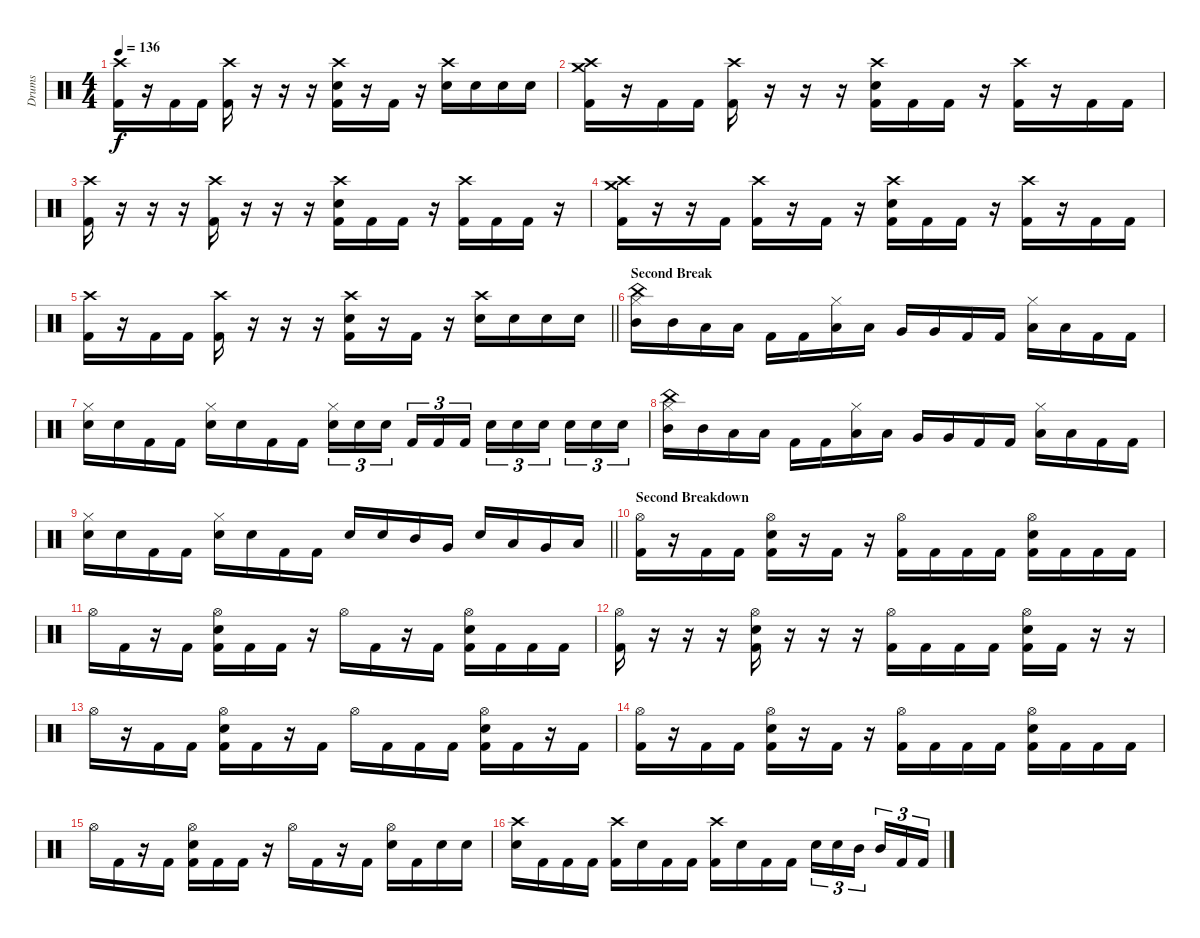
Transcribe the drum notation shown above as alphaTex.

\track ("Drums" "Drums") {instrument percussion}
\staff {score}
\articulation defaults
\ts (4 4)
\tempo 136
\clef neutral
\ks c
("Crash high (hit)" "Kick (hit) 2").16{dy f} r.16 "Kick (hit) 2".16 "Kick (hit) 2".16 ("Crash high (hit)" "Kick (hit) 2").16 r.16 r.16 r.16 ("Crash high (hit)" "Electric Snare (hit)" "Kick (hit) 2").16 r.16 "Kick (hit) 2".16 r.16 ("Crash high (hit)" "Electric Snare (hit)").16 "Electric Snare (hit)".16 "Electric Snare (hit)".16 "Electric Snare (hit)".16 |
("Crash medium (hit)" "Crash high (hit)" "Kick (hit) 2").16 r.16 "Kick (hit) 2".16 "Kick (hit) 2".16 ("Crash high (hit)" "Kick (hit) 2").16 r.16 r.16 r.16 ("Crash high (hit)" "Electric Snare (hit)" "Kick (hit) 2").16 "Kick (hit) 2".16 "Kick (hit) 2".16 r.16 ("Crash high (hit)" "Kick (hit) 2").16 r.16 "Kick (hit) 2".16 "Kick (hit) 2".16 |
("Crash high (hit)" "Kick (hit) 2").16 r.16 r.16 r.16 ("Crash high (hit)" "Kick (hit) 2").16 r.16 r.16 r.16 ("Crash high (hit)" "Electric Snare (hit)" "Kick (hit) 2").16 "Kick (hit) 2".16 "Kick (hit) 2".16 r.16 ("Crash high (hit)" "Kick (hit) 2").16 "Kick (hit) 2".16 "Kick (hit) 2".16 r.16 |
("Crash medium (hit)" "Crash high (hit)" "Kick (hit) 2").16 r.16 r.16 "Kick (hit) 2".16 ("Crash high (hit)" "Kick (hit) 2").16 r.16 "Kick (hit) 2".16 r.16 ("Crash high (hit)" "Electric Snare (hit)" "Kick (hit) 2").16 "Kick (hit) 2".16 "Kick (hit) 2".16 r.16 ("Crash high (hit)" "Kick (hit) 2").16 r.16 "Kick (hit) 2".16 "Kick (hit) 2".16 |
\barLineRight lightlight
("Crash high (hit)" "Kick (hit) 2").16 r.16 "Kick (hit) 2".16 "Kick (hit) 2".16 ("Crash high (hit)" "Kick (hit) 2").16 r.16 r.16 r.16 ("Crash high (hit)" "Electric Snare (hit)" "Kick (hit) 2").16 r.16 "Kick (hit) 2".16 r.16 ("Crash high (hit)" "Electric Snare (hit)").16 "Electric Snare (hit)".16 "Electric Snare (hit)".16 "Electric Snare (hit)".16 |
\section ("" "Second Break")
("China (hit)" "Hi-Hat (closed)" "Mid Tom (hit)").16 "Mid Tom (hit)".16 "Low Tom (hit)".16 "Low Tom (hit)".16 "Kick (hit) 2".16 "Kick (hit) 2".16 ("Hi-Hat (closed)" "Low Tom (hit)").16 "Low Tom (hit)".16 "Very Low Tom (hit)".16 "Very Low Tom (hit)".16 "Kick (hit) 2".16 "Kick (hit) 2".16 ("Hi-Hat (closed)" "Low Floor Tom (hit)").16 "Low Floor Tom (hit)".16 "Kick (hit) 2".16 "Kick (hit) 2".16 |
("Hi-Hat (closed)" "Electric Snare (hit)").16 "Electric Snare (hit)".16 "Kick (hit) 2".16 "Kick (hit) 2".16 ("Hi-Hat (closed)" "Electric Snare (hit)").16 "Electric Snare (hit)".16 "Kick (hit) 2".16 "Kick (hit) 2".16 ("Hi-Hat (closed)" "Electric Snare (hit)").16{tu (3 2)} "Electric Snare (hit)".16{tu (3 2)} "Electric Snare (hit)".16{tu (3 2) beam splitsecondary} "Kick (hit) 2".16{tu (3 2)} "Kick (hit) 2".16{tu (3 2)} "Kick (hit) 2".16{tu (3 2)} "Electric Snare (hit)".16{tu (3 2)} "Electric Snare (hit)".16{tu (3 2)} "Electric Snare (hit)".16{tu (3 2) beam splitsecondary} "Electric Snare (hit)".16{tu (3 2)} "Electric Snare (hit)".16{tu (3 2)} "Electric Snare (hit)".16{tu (3 2)} |
("China (hit)" "Hi-Hat (closed)" "Mid Tom (hit)").16 "Mid Tom (hit)".16 "Low Tom (hit)".16 "Low Tom (hit)".16 "Kick (hit) 2".16 "Kick (hit) 2".16 ("Hi-Hat (closed)" "Low Tom (hit)").16 "Low Tom (hit)".16 "Very Low Tom (hit)".16 "Very Low Tom (hit)".16 "Kick (hit) 2".16 "Kick (hit) 2".16 ("Hi-Hat (closed)" "Low Floor Tom (hit)").16 "Low Floor Tom (hit)".16 "Kick (hit) 2".16 "Kick (hit) 2".16 |
\barLineRight lightlight
("Hi-Hat (closed)" "Electric Snare (hit)").16 "Electric Snare (hit)".16 "Kick (hit) 2".16 "Kick (hit) 2".16 ("Hi-Hat (closed)" "Electric Snare (hit)").16 "Electric Snare (hit)".16 "Kick (hit) 2".16 "Kick (hit) 2".16 "Electric Snare (hit)".16 "Electric Snare (hit)".16 "Mid Tom (hit)".16 "Very Low Tom (hit)".16 "Electric Snare (hit)".16 "Low Tom (hit)".16 "Very Low Tom (hit)".16 "Low Floor Tom (hit)".16 |
\section ("" "Second Breakdown")
("Hi-Hat (open)" "Kick (hit) 2").16 r.16 "Kick (hit) 2".16 "Kick (hit) 2".16 ("Hi-Hat (open)" "Electric Snare (hit)" "Kick (hit) 2").16 r.16 "Kick (hit) 2".16 r.16 ("Hi-Hat (open)" "Kick (hit) 2").16 "Kick (hit) 2".16 "Kick (hit) 2".16 "Kick (hit) 2".16 ("Hi-Hat (open)" "Electric Snare (hit)" "Kick (hit) 2").16 "Kick (hit) 2".16 "Kick (hit) 2".16 "Kick (hit) 2".16 |
"Hi-Hat (open)".16 "Kick (hit) 2".16 r.16 "Kick (hit) 2".16 ("Hi-Hat (open)" "Electric Snare (hit)" "Kick (hit) 2").16 "Kick (hit) 2".16 "Kick (hit) 2".16 r.16 "Hi-Hat (open)".16 "Kick (hit) 2".16 r.16 "Kick (hit) 2".16 ("Hi-Hat (open)" "Electric Snare (hit)" "Kick (hit) 2").16 "Kick (hit) 2".16 "Kick (hit) 2".16 "Kick (hit) 2".16 |
("Hi-Hat (open)" "Kick (hit) 2").16 r.16 r.16 r.16 ("Hi-Hat (open)" "Electric Snare (hit)" "Kick (hit) 2").16 r.16 r.16 r.16 ("Hi-Hat (open)" "Kick (hit) 2").16 "Kick (hit) 2".16 "Kick (hit) 2".16 "Kick (hit) 2".16 ("Hi-Hat (open)" "Electric Snare (hit)" "Kick (hit) 2").16 "Kick (hit) 2".16 r.16 r.16 |
"Hi-Hat (open)".16 r.16 "Kick (hit) 2".16 "Kick (hit) 2".16 ("Hi-Hat (open)" "Electric Snare (hit)" "Kick (hit) 2").16 "Kick (hit) 2".16 r.16 "Kick (hit) 2".16 "Hi-Hat (open)".16 "Kick (hit) 2".16 "Kick (hit) 2".16 "Kick (hit) 2".16 ("Hi-Hat (open)" "Electric Snare (hit)" "Kick (hit) 2").16 "Kick (hit) 2".16 r.16 "Kick (hit) 2".16 |
("Hi-Hat (open)" "Kick (hit) 2").16 r.16 "Kick (hit) 2".16 "Kick (hit) 2".16 ("Hi-Hat (open)" "Electric Snare (hit)" "Kick (hit) 2").16 r.16 "Kick (hit) 2".16 r.16 ("Hi-Hat (open)" "Kick (hit) 2").16 "Kick (hit) 2".16 "Kick (hit) 2".16 "Kick (hit) 2".16 ("Hi-Hat (open)" "Electric Snare (hit)" "Kick (hit) 2").16 "Kick (hit) 2".16 "Kick (hit) 2".16 "Kick (hit) 2".16 |
"Hi-Hat (open)".16 "Kick (hit) 2".16 r.16 "Kick (hit) 2".16 ("Hi-Hat (open)" "Electric Snare (hit)" "Kick (hit) 2").16 "Kick (hit) 2".16 "Kick (hit) 2".16 r.16 "Hi-Hat (open)".16 "Kick (hit) 2".16 r.16 "Kick (hit) 2".16 ("Hi-Hat (open)" "Electric Snare (hit)").16 "Kick (hit) 2".16 "Electric Snare (hit)".16 "Electric Snare (hit)".16 |
("Crash high (hit)" "Electric Snare (hit)").16 "Kick (hit) 2".16 "Kick (hit) 2".16 "Kick (hit) 2".16 ("Crash high (hit)" "Kick (hit) 2").16 "Electric Snare (hit)".16 "Kick (hit) 2".16 "Kick (hit) 2".16 ("Crash high (hit)" "Kick (hit) 2").16 "Electric Snare (hit)".16 "Kick (hit) 2".16 "Kick (hit) 2".16 "Electric Snare (hit)".16{tu (3 2)} "Electric Snare (hit)".16{tu (3 2)} "Mid Tom (hit)".16{tu (3 2) beam splitsecondary} "Mid Tom (hit)".16{tu (3 2)} "Kick (hit) 2".16{tu (3 2)} "Kick (hit) 2".16{tu (3 2)}
